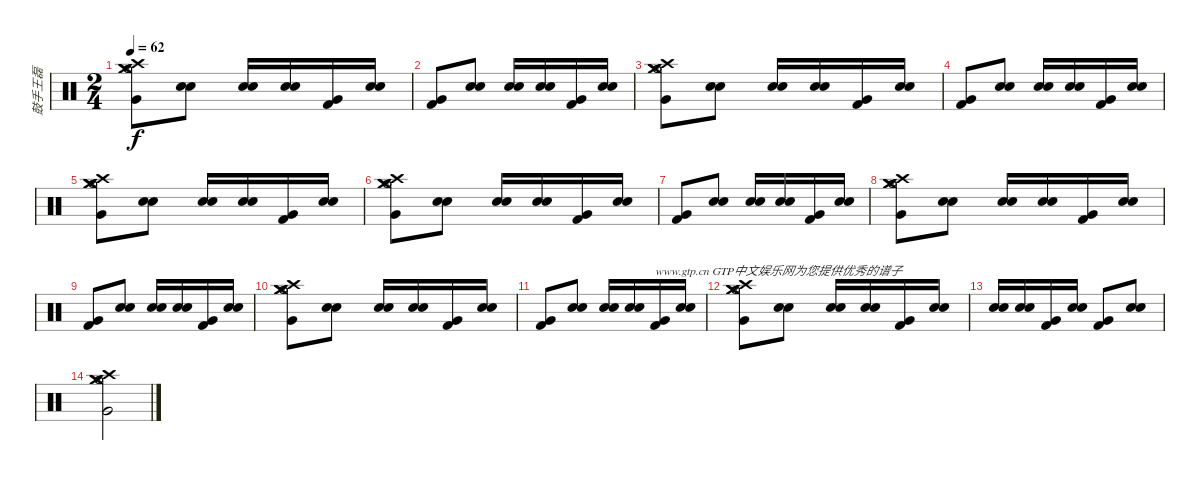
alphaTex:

\track ("鼓手王磊" "鼓手王磊") {instrument percussion}
\staff {score}
\articulation defaults
\ts (2 4)
\tempo 62
\clef neutral
\ks c
("Crash medium (hit)" "Crash medium (hit)" "Very Low Tom (hit)" "Crash high (hit)" "Hi-Hat (open)" "Hi-Hat (open)").8{dy f} ("Electric Snare (hit)" "Electric Snare (hit)").8 ("Electric Snare (hit)" "Electric Snare (hit)").16 ("Electric Snare (hit)" "Electric Snare (hit)").16 ("Very Low Tom (hit)" "Kick (hit) 2").16 ("Electric Snare (hit)" "Electric Snare (hit)").16 |
("Very Low Tom (hit)" "Kick (hit) 2").8 ("Electric Snare (hit)" "Electric Snare (hit)").8 ("Electric Snare (hit)" "Electric Snare (hit)").16 ("Electric Snare (hit)" "Electric Snare (hit)").16 ("Very Low Tom (hit)" "Kick (hit) 2").16 ("Electric Snare (hit)" "Electric Snare (hit)").16 |
("Crash medium (hit)" "Crash medium (hit)" "Very Low Tom (hit)" "Crash high (hit)" "Hi-Hat (open)" "Hi-Hat (open)").8 ("Electric Snare (hit)" "Electric Snare (hit)").8 ("Electric Snare (hit)" "Electric Snare (hit)").16 ("Electric Snare (hit)" "Electric Snare (hit)").16 ("Very Low Tom (hit)" "Kick (hit) 2").16 ("Electric Snare (hit)" "Electric Snare (hit)").16 |
("Very Low Tom (hit)" "Kick (hit) 2").8 ("Electric Snare (hit)" "Electric Snare (hit)").8 ("Electric Snare (hit)" "Electric Snare (hit)").16 ("Electric Snare (hit)" "Electric Snare (hit)").16 ("Very Low Tom (hit)" "Kick (hit) 2").16 ("Electric Snare (hit)" "Electric Snare (hit)").16 |
("Crash medium (hit)" "Crash medium (hit)" "Very Low Tom (hit)" "Crash high (hit)" "Hi-Hat (open)" "Hi-Hat (open)").8 ("Electric Snare (hit)" "Electric Snare (hit)").8 ("Electric Snare (hit)" "Electric Snare (hit)").16 ("Electric Snare (hit)" "Electric Snare (hit)").16 ("Very Low Tom (hit)" "Kick (hit) 2").16 ("Electric Snare (hit)" "Electric Snare (hit)").16 |
("Crash medium (hit)" "Crash medium (hit)" "Very Low Tom (hit)" "Crash high (hit)" "Hi-Hat (open)" "Hi-Hat (open)").8 ("Electric Snare (hit)" "Electric Snare (hit)").8 ("Electric Snare (hit)" "Electric Snare (hit)").16 ("Electric Snare (hit)" "Electric Snare (hit)").16 ("Very Low Tom (hit)" "Kick (hit) 2").16 ("Electric Snare (hit)" "Electric Snare (hit)").16 |
("Very Low Tom (hit)" "Kick (hit) 2").8 ("Electric Snare (hit)" "Electric Snare (hit)").8 ("Electric Snare (hit)" "Electric Snare (hit)").16 ("Electric Snare (hit)" "Electric Snare (hit)").16 ("Very Low Tom (hit)" "Kick (hit) 2").16 ("Electric Snare (hit)" "Electric Snare (hit)").16 |
("Crash medium (hit)" "Crash medium (hit)" "Very Low Tom (hit)" "Crash high (hit)" "Hi-Hat (open)" "Hi-Hat (open)").8 ("Electric Snare (hit)" "Electric Snare (hit)").8 ("Electric Snare (hit)" "Electric Snare (hit)").16 ("Electric Snare (hit)" "Electric Snare (hit)").16 ("Very Low Tom (hit)" "Kick (hit) 2").16 ("Electric Snare (hit)" "Electric Snare (hit)").16 |
("Very Low Tom (hit)" "Kick (hit) 2").8 ("Electric Snare (hit)" "Electric Snare (hit)").8 ("Electric Snare (hit)" "Electric Snare (hit)").16 ("Electric Snare (hit)" "Electric Snare (hit)").16 ("Very Low Tom (hit)" "Kick (hit) 2").16 ("Electric Snare (hit)" "Electric Snare (hit)").16 |
("Crash medium (hit)" "Crash medium (hit)" "Very Low Tom (hit)" "Crash high (hit)" "Hi-Hat (open)" "Hi-Hat (open)").8 ("Electric Snare (hit)" "Electric Snare (hit)").8 ("Electric Snare (hit)" "Electric Snare (hit)").16 ("Electric Snare (hit)" "Electric Snare (hit)").16 ("Very Low Tom (hit)" "Kick (hit) 2").16 ("Electric Snare (hit)" "Electric Snare (hit)").16 |
("Very Low Tom (hit)" "Kick (hit) 2").8 ("Electric Snare (hit)" "Electric Snare (hit)").8 ("Electric Snare (hit)" "Electric Snare (hit)").16 ("Electric Snare (hit)" "Electric Snare (hit)").16 ("Very Low Tom (hit)" "Kick (hit) 2").16{txt "www.gtp.cn GTP中文娱乐网为您提供优秀的谱子"} ("Electric Snare (hit)" "Electric Snare (hit)").16 |
("Crash medium (hit)" "Crash medium (hit)" "Very Low Tom (hit)" "Crash high (hit)" "Hi-Hat (open)" "Hi-Hat (open)").8 ("Electric Snare (hit)" "Electric Snare (hit)").8 ("Electric Snare (hit)" "Electric Snare (hit)").16 ("Electric Snare (hit)" "Electric Snare (hit)").16 ("Very Low Tom (hit)" "Kick (hit) 2").16 ("Electric Snare (hit)" "Electric Snare (hit)").16 |
("Electric Snare (hit)" "Electric Snare (hit)").16 ("Electric Snare (hit)" "Electric Snare (hit)").16 ("Very Low Tom (hit)" "Kick (hit) 2").16 ("Electric Snare (hit)" "Electric Snare (hit)").16 ("Very Low Tom (hit)" "Kick (hit) 2").8 ("Electric Snare (hit)" "Electric Snare (hit)").8 |
("Crash medium (hit)" "Crash medium (hit)" "Very Low Tom (hit)" "Crash high (hit)" "Hi-Hat (open)" "Hi-Hat (open)").2
